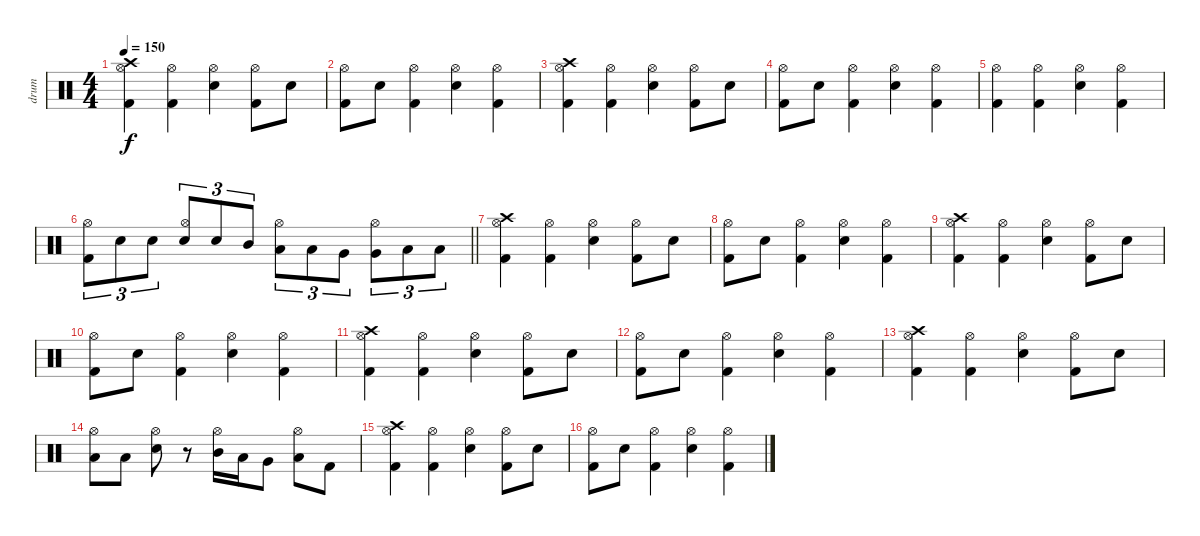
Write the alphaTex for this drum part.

\track ("drum" "drum") {instrument percussion}
\staff {score}
\articulation defaults
\ts (4 4)
\tempo 150
\clef neutral
\ks c
("Crash high (hit)" "Hi-Hat (open)" "Kick (hit) 2").4{dy f} ("Hi-Hat (open)" "Kick (hit) 2").4 ("Hi-Hat (open)" "Electric Snare (hit)").4 ("Hi-Hat (open)" "Kick (hit) 2").8 "Electric Snare (hit)".8 |
("Hi-Hat (open)" "Kick (hit) 2").8 "Electric Snare (hit)".8 ("Hi-Hat (open)" "Kick (hit) 2").4 ("Hi-Hat (open)" "Electric Snare (hit)").4 ("Hi-Hat (open)" "Kick (hit) 2").4 |
("Crash high (hit)" "Hi-Hat (open)" "Kick (hit) 2").4 ("Hi-Hat (open)" "Kick (hit) 2").4 ("Hi-Hat (open)" "Electric Snare (hit)").4 ("Hi-Hat (open)" "Kick (hit) 2").8 "Electric Snare (hit)".8 |
("Hi-Hat (open)" "Kick (hit) 2").8 "Electric Snare (hit)".8 ("Hi-Hat (open)" "Kick (hit) 2").4 ("Hi-Hat (open)" "Electric Snare (hit)").4 ("Hi-Hat (open)" "Kick (hit) 2").4 |
("Hi-Hat (open)" "Kick (hit) 2").4 ("Hi-Hat (open)" "Kick (hit) 2").4 ("Hi-Hat (open)" "Electric Snare (hit)").4 ("Hi-Hat (open)" "Kick (hit) 2").4 |
\barLineRight lightlight
("Hi-Hat (open)" "Kick (hit) 2").8{tu (3 2)} "Electric Snare (hit)".8{tu (3 2)} "Electric Snare (hit)".8{tu (3 2)} ("Hi-Hat (open)" "Electric Snare (hit)").8{tu (3 2) beam Up} "Electric Snare (hit)".8{tu (3 2) beam Up} "Mid Tom (hit)".8{tu (3 2) beam Up} ("Hi-Hat (open)" "Low Tom (hit)").8{tu (3 2)} "Low Tom (hit)".8{tu (3 2)} "Very Low Tom (hit)".8{tu (3 2)} ("Hi-Hat (open)" "Very Low Tom (hit)").8{tu (3 2)} "Low Floor Tom (hit)".8{tu (3 2)} "Low Floor Tom (hit)".8{tu (3 2)} |
("Crash high (hit)" "Hi-Hat (open)" "Kick (hit) 2").4 ("Hi-Hat (open)" "Kick (hit) 2").4 ("Hi-Hat (open)" "Electric Snare (hit)").4 ("Hi-Hat (open)" "Kick (hit) 2").8 "Electric Snare (hit)".8 |
("Hi-Hat (open)" "Kick (hit) 2").8 "Electric Snare (hit)".8 ("Hi-Hat (open)" "Kick (hit) 2").4 ("Hi-Hat (open)" "Electric Snare (hit)").4 ("Hi-Hat (open)" "Kick (hit) 2").4 |
("Crash high (hit)" "Hi-Hat (open)" "Kick (hit) 2").4 ("Hi-Hat (open)" "Kick (hit) 2").4 ("Hi-Hat (open)" "Electric Snare (hit)").4 ("Hi-Hat (open)" "Kick (hit) 2").8 "Electric Snare (hit)".8 |
("Hi-Hat (open)" "Kick (hit) 2").8 "Electric Snare (hit)".8 ("Hi-Hat (open)" "Kick (hit) 2").4 ("Hi-Hat (open)" "Electric Snare (hit)").4 ("Hi-Hat (open)" "Kick (hit) 2").4 |
("Crash high (hit)" "Hi-Hat (open)" "Kick (hit) 2").4 ("Hi-Hat (open)" "Kick (hit) 2").4 ("Hi-Hat (open)" "Electric Snare (hit)").4 ("Hi-Hat (open)" "Kick (hit) 2").8 "Electric Snare (hit)".8 |
("Hi-Hat (open)" "Kick (hit) 2").8 "Electric Snare (hit)".8 ("Hi-Hat (open)" "Kick (hit) 2").4 ("Hi-Hat (open)" "Electric Snare (hit)").4 ("Hi-Hat (open)" "Kick (hit) 2").4 |
("Crash high (hit)" "Hi-Hat (open)" "Kick (hit) 2").4 ("Hi-Hat (open)" "Kick (hit) 2").4 ("Hi-Hat (open)" "Electric Snare (hit)").4 ("Hi-Hat (open)" "Kick (hit) 2").8 "Electric Snare (hit)".8 |
("Hi-Hat (open)" "Low Tom (hit)").8 "Low Floor Tom (hit)".8 ("Hi-Hat (open)" "Electric Snare (hit)").8 r.8 ("Hi-Hat (open)" "Mid Tom (hit)").16 "Low Tom (hit)".16 "Very Low Tom (hit)".8 ("Hi-Hat (open)" "Low Floor Tom (hit)").8 "Kick (hit) 2".8 |
("Crash high (hit)" "Hi-Hat (open)" "Kick (hit) 2").4 ("Hi-Hat (open)" "Kick (hit) 2").4 ("Hi-Hat (open)" "Electric Snare (hit)").4 ("Hi-Hat (open)" "Kick (hit) 2").8 "Electric Snare (hit)".8 |
("Hi-Hat (open)" "Kick (hit) 2").8 "Electric Snare (hit)".8 ("Hi-Hat (open)" "Kick (hit) 2").4 ("Hi-Hat (open)" "Electric Snare (hit)").4 ("Hi-Hat (open)" "Kick (hit) 2").4
